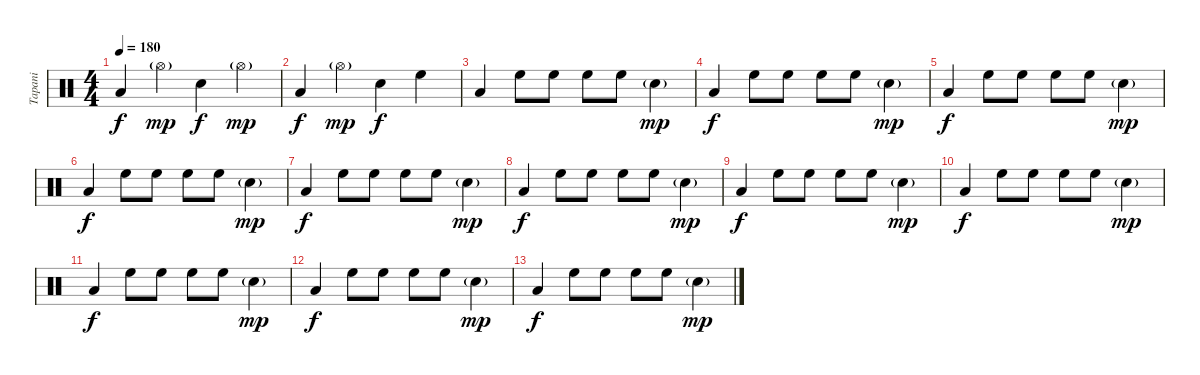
\track ("Tapani" "Tapani") {instrument percussion}
\staff {score}
\articulation defaults
\ts (4 4)
\tempo 180
\clef neutral
\ks c "Low Tom (hit)".4{dy f} "Hi-Hat (open)"{g}.4{dy mp} "Electric Snare (hit)".4{dy f} "Hi-Hat (open)"{g}.4{dy mp}
|
"Low Tom (hit)".4{dy f} "Hi-Hat (open)"{g}.4{dy mp} "Electric Snare (hit)".4{dy f} "High Floor Tom (hit)".4 |
"Low Tom (hit)".4 "High Floor Tom (hit)".8 "High Floor Tom (hit)".8 "High Floor Tom (hit)".8 "High Floor Tom (hit)".8 "Electric Snare (hit)"{g}.4{dy mp} |
"Low Tom (hit)".4{dy f} "High Floor Tom (hit)".8 "High Floor Tom (hit)".8 "High Floor Tom (hit)".8 "High Floor Tom (hit)".8 "Electric Snare (hit)"{g}.4{dy mp} |
"Low Tom (hit)".4{dy f} "High Floor Tom (hit)".8 "High Floor Tom (hit)".8 "High Floor Tom (hit)".8 "High Floor Tom (hit)".8 "Electric Snare (hit)"{g}.4{dy mp} |
"Low Tom (hit)".4{dy f} "High Floor Tom (hit)".8 "High Floor Tom (hit)".8 "High Floor Tom (hit)".8 "High Floor Tom (hit)".8 "Electric Snare (hit)"{g}.4{dy mp} |
"Low Tom (hit)".4{dy f} "High Floor Tom (hit)".8 "High Floor Tom (hit)".8 "High Floor Tom (hit)".8 "High Floor Tom (hit)".8 "Electric Snare (hit)"{g}.4{dy mp} |
"Low Tom (hit)".4{dy f} "High Floor Tom (hit)".8 "High Floor Tom (hit)".8 "High Floor Tom (hit)".8 "High Floor Tom (hit)".8 "Electric Snare (hit)"{g}.4{dy mp} |
"Low Tom (hit)".4{dy f} "High Floor Tom (hit)".8 "High Floor Tom (hit)".8 "High Floor Tom (hit)".8 "High Floor Tom (hit)".8 "Electric Snare (hit)"{g}.4{dy mp} |
"Low Tom (hit)".4{dy f} "High Floor Tom (hit)".8 "High Floor Tom (hit)".8 "High Floor Tom (hit)".8 "High Floor Tom (hit)".8 "Electric Snare (hit)"{g}.4{dy mp} |
"Low Tom (hit)".4{dy f} "High Floor Tom (hit)".8 "High Floor Tom (hit)".8 "High Floor Tom (hit)".8 "High Floor Tom (hit)".8 "Electric Snare (hit)"{g}.4{dy mp} |
"Low Tom (hit)".4{dy f} "High Floor Tom (hit)".8 "High Floor Tom (hit)".8 "High Floor Tom (hit)".8 "High Floor Tom (hit)".8 "Electric Snare (hit)"{g}.4{dy mp} |
"Low Tom (hit)".4{dy f} "High Floor Tom (hit)".8 "High Floor Tom (hit)".8 "High Floor Tom (hit)".8 "High Floor Tom (hit)".8 "Electric Snare (hit)"{g}.4{dy mp}
